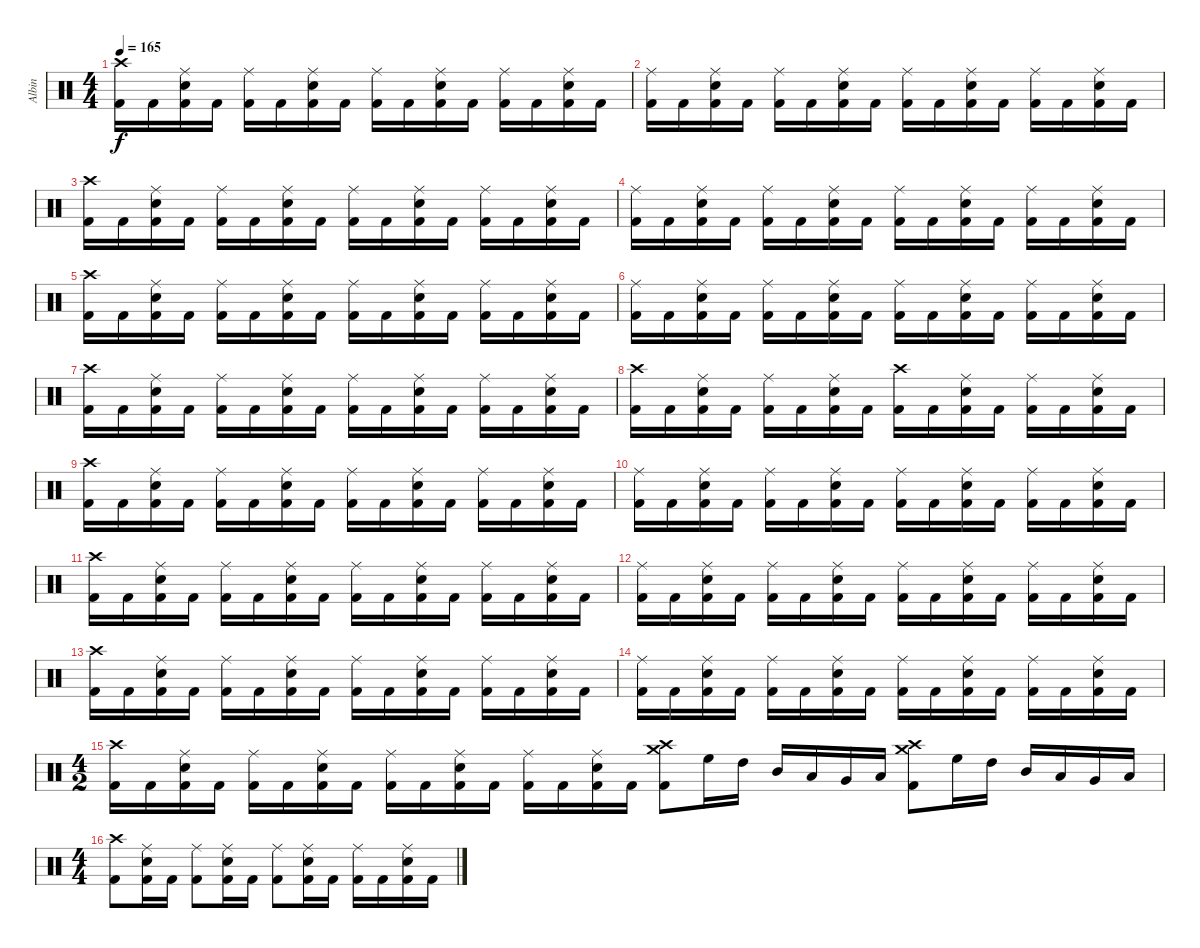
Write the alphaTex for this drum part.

\track ("Albin" "Albin") {instrument percussion}
\staff {score}
\articulation defaults
\ts (4 4)
\tempo 165
\clef neutral
\ks c
("Kick (hit) 2" "Crash high (hit)").16{dy f} "Kick (hit) 2".16 ("Kick (hit) 2" "Electric Snare (hit)" "Ride (middle)").16 "Kick (hit) 2".16 ("Kick (hit) 2" "Ride (middle)").16 "Kick (hit) 2".16 ("Kick (hit) 2" "Electric Snare (hit)" "Ride (middle)").16 "Kick (hit) 2".16 ("Kick (hit) 2" "Ride (middle)").16 "Kick (hit) 2".16 ("Kick (hit) 2" "Electric Snare (hit)" "Ride (middle)").16 "Kick (hit) 2".16 ("Kick (hit) 2" "Ride (middle)").16 "Kick (hit) 2".16 ("Kick (hit) 2" "Electric Snare (hit)" "Ride (middle)").16 "Kick (hit) 2".16 |
("Kick (hit) 2" "Ride (middle)").16 "Kick (hit) 2".16 ("Kick (hit) 2" "Electric Snare (hit)" "Ride (middle)").16 "Kick (hit) 2".16 ("Kick (hit) 2" "Ride (middle)").16 "Kick (hit) 2".16 ("Kick (hit) 2" "Electric Snare (hit)" "Ride (middle)").16 "Kick (hit) 2".16 ("Kick (hit) 2" "Ride (middle)").16 "Kick (hit) 2".16 ("Kick (hit) 2" "Electric Snare (hit)" "Ride (middle)").16 "Kick (hit) 2".16 ("Kick (hit) 2" "Ride (middle)").16 "Kick (hit) 2".16 ("Kick (hit) 2" "Electric Snare (hit)" "Ride (middle)").16 "Kick (hit) 2".16 |
("Kick (hit) 2" "Crash high (hit)").16 "Kick (hit) 2".16 ("Kick (hit) 2" "Electric Snare (hit)" "Ride (middle)").16 "Kick (hit) 2".16 ("Kick (hit) 2" "Ride (middle)").16 "Kick (hit) 2".16 ("Kick (hit) 2" "Electric Snare (hit)" "Ride (middle)").16 "Kick (hit) 2".16 ("Kick (hit) 2" "Ride (middle)").16 "Kick (hit) 2".16 ("Kick (hit) 2" "Electric Snare (hit)" "Ride (middle)").16 "Kick (hit) 2".16 ("Kick (hit) 2" "Ride (middle)").16 "Kick (hit) 2".16 ("Kick (hit) 2" "Electric Snare (hit)" "Ride (middle)").16 "Kick (hit) 2".16 |
("Kick (hit) 2" "Ride (middle)").16 "Kick (hit) 2".16 ("Kick (hit) 2" "Electric Snare (hit)" "Ride (middle)").16 "Kick (hit) 2".16 ("Kick (hit) 2" "Ride (middle)").16 "Kick (hit) 2".16 ("Kick (hit) 2" "Electric Snare (hit)" "Ride (middle)").16 "Kick (hit) 2".16 ("Kick (hit) 2" "Ride (middle)").16 "Kick (hit) 2".16 ("Kick (hit) 2" "Electric Snare (hit)" "Ride (middle)").16 "Kick (hit) 2".16 ("Kick (hit) 2" "Ride (middle)").16 "Kick (hit) 2".16 ("Kick (hit) 2" "Electric Snare (hit)" "Ride (middle)").16 "Kick (hit) 2".16 |
("Kick (hit) 2" "Crash high (hit)").16 "Kick (hit) 2".16 ("Kick (hit) 2" "Electric Snare (hit)" "Ride (middle)").16 "Kick (hit) 2".16 ("Kick (hit) 2" "Ride (middle)").16 "Kick (hit) 2".16 ("Kick (hit) 2" "Electric Snare (hit)" "Ride (middle)").16 "Kick (hit) 2".16 ("Kick (hit) 2" "Ride (middle)").16 "Kick (hit) 2".16 ("Kick (hit) 2" "Electric Snare (hit)" "Ride (middle)").16 "Kick (hit) 2".16 ("Kick (hit) 2" "Ride (middle)").16 "Kick (hit) 2".16 ("Kick (hit) 2" "Electric Snare (hit)" "Ride (middle)").16 "Kick (hit) 2".16 |
("Kick (hit) 2" "Ride (middle)").16 "Kick (hit) 2".16 ("Kick (hit) 2" "Electric Snare (hit)" "Ride (middle)").16 "Kick (hit) 2".16 ("Kick (hit) 2" "Ride (middle)").16 "Kick (hit) 2".16 ("Kick (hit) 2" "Electric Snare (hit)" "Ride (middle)").16 "Kick (hit) 2".16 ("Kick (hit) 2" "Ride (middle)").16 "Kick (hit) 2".16 ("Kick (hit) 2" "Electric Snare (hit)" "Ride (middle)").16 "Kick (hit) 2".16 ("Kick (hit) 2" "Ride (middle)").16 "Kick (hit) 2".16 ("Kick (hit) 2" "Electric Snare (hit)" "Ride (middle)").16 "Kick (hit) 2".16 |
("Kick (hit) 2" "Crash high (hit)").16 "Kick (hit) 2".16 ("Kick (hit) 2" "Electric Snare (hit)" "Ride (middle)").16 "Kick (hit) 2".16 ("Kick (hit) 2" "Ride (middle)").16 "Kick (hit) 2".16 ("Kick (hit) 2" "Electric Snare (hit)" "Ride (middle)").16 "Kick (hit) 2".16 ("Kick (hit) 2" "Ride (middle)").16 "Kick (hit) 2".16 ("Kick (hit) 2" "Electric Snare (hit)" "Ride (middle)").16 "Kick (hit) 2".16 ("Kick (hit) 2" "Ride (middle)").16 "Kick (hit) 2".16 ("Kick (hit) 2" "Electric Snare (hit)" "Ride (middle)").16 "Kick (hit) 2".16 |
("Kick (hit) 2" "Crash high (hit)").16 "Kick (hit) 2".16 ("Kick (hit) 2" "Electric Snare (hit)" "Ride (middle)").16 "Kick (hit) 2".16 ("Kick (hit) 2" "Ride (middle)").16 "Kick (hit) 2".16 ("Kick (hit) 2" "Electric Snare (hit)" "Ride (middle)").16 "Kick (hit) 2".16 ("Kick (hit) 2" "Crash high (hit)").16 "Kick (hit) 2".16 ("Kick (hit) 2" "Electric Snare (hit)" "Ride (middle)").16 "Kick (hit) 2".16 ("Kick (hit) 2" "Ride (middle)").16 "Kick (hit) 2".16 ("Kick (hit) 2" "Electric Snare (hit)" "Ride (middle)").16 "Kick (hit) 2".16 |
("Kick (hit) 2" "Crash high (hit)").16 "Kick (hit) 2".16 ("Kick (hit) 2" "Electric Snare (hit)" "Ride (middle)").16 "Kick (hit) 2".16 ("Kick (hit) 2" "Ride (middle)").16 "Kick (hit) 2".16 ("Kick (hit) 2" "Electric Snare (hit)" "Ride (middle)").16 "Kick (hit) 2".16 ("Kick (hit) 2" "Ride (middle)").16 "Kick (hit) 2".16 ("Kick (hit) 2" "Electric Snare (hit)" "Ride (middle)").16 "Kick (hit) 2".16 ("Kick (hit) 2" "Ride (middle)").16 "Kick (hit) 2".16 ("Kick (hit) 2" "Electric Snare (hit)" "Ride (middle)").16 "Kick (hit) 2".16 |
("Kick (hit) 2" "Ride (middle)").16 "Kick (hit) 2".16 ("Kick (hit) 2" "Electric Snare (hit)" "Ride (middle)").16 "Kick (hit) 2".16 ("Kick (hit) 2" "Ride (middle)").16 "Kick (hit) 2".16 ("Kick (hit) 2" "Electric Snare (hit)" "Ride (middle)").16 "Kick (hit) 2".16 ("Kick (hit) 2" "Ride (middle)").16 "Kick (hit) 2".16 ("Kick (hit) 2" "Electric Snare (hit)" "Ride (middle)").16 "Kick (hit) 2".16 ("Kick (hit) 2" "Ride (middle)").16 "Kick (hit) 2".16 ("Kick (hit) 2" "Electric Snare (hit)" "Ride (middle)").16 "Kick (hit) 2".16 |
("Kick (hit) 2" "Crash high (hit)").16 "Kick (hit) 2".16 ("Kick (hit) 2" "Electric Snare (hit)" "Ride (middle)").16 "Kick (hit) 2".16 ("Kick (hit) 2" "Ride (middle)").16 "Kick (hit) 2".16 ("Kick (hit) 2" "Electric Snare (hit)" "Ride (middle)").16 "Kick (hit) 2".16 ("Kick (hit) 2" "Ride (middle)").16 "Kick (hit) 2".16 ("Kick (hit) 2" "Electric Snare (hit)" "Ride (middle)").16 "Kick (hit) 2".16 ("Kick (hit) 2" "Ride (middle)").16 "Kick (hit) 2".16 ("Kick (hit) 2" "Electric Snare (hit)" "Ride (middle)").16 "Kick (hit) 2".16 |
("Kick (hit) 2" "Ride (middle)").16 "Kick (hit) 2".16 ("Kick (hit) 2" "Electric Snare (hit)" "Ride (middle)").16 "Kick (hit) 2".16 ("Kick (hit) 2" "Ride (middle)").16 "Kick (hit) 2".16 ("Kick (hit) 2" "Electric Snare (hit)" "Ride (middle)").16 "Kick (hit) 2".16 ("Kick (hit) 2" "Ride (middle)").16 "Kick (hit) 2".16 ("Kick (hit) 2" "Electric Snare (hit)" "Ride (middle)").16 "Kick (hit) 2".16 ("Kick (hit) 2" "Ride (middle)").16 "Kick (hit) 2".16 ("Kick (hit) 2" "Electric Snare (hit)" "Ride (middle)").16 "Kick (hit) 2".16 |
("Kick (hit) 2" "Crash high (hit)").16 "Kick (hit) 2".16 ("Kick (hit) 2" "Electric Snare (hit)" "Ride (middle)").16 "Kick (hit) 2".16 ("Kick (hit) 2" "Ride (middle)").16 "Kick (hit) 2".16 ("Kick (hit) 2" "Electric Snare (hit)" "Ride (middle)").16 "Kick (hit) 2".16 ("Kick (hit) 2" "Ride (middle)").16 "Kick (hit) 2".16 ("Kick (hit) 2" "Electric Snare (hit)" "Ride (middle)").16 "Kick (hit) 2".16 ("Kick (hit) 2" "Ride (middle)").16 "Kick (hit) 2".16 ("Kick (hit) 2" "Electric Snare (hit)" "Ride (middle)").16 "Kick (hit) 2".16 |
("Kick (hit) 2" "Ride (middle)").16 "Kick (hit) 2".16 ("Kick (hit) 2" "Electric Snare (hit)" "Ride (middle)").16 "Kick (hit) 2".16 ("Kick (hit) 2" "Ride (middle)").16 "Kick (hit) 2".16 ("Kick (hit) 2" "Electric Snare (hit)" "Ride (middle)").16 "Kick (hit) 2".16 ("Kick (hit) 2" "Ride (middle)").16 "Kick (hit) 2".16 ("Kick (hit) 2" "Electric Snare (hit)" "Ride (middle)").16 "Kick (hit) 2".16 ("Kick (hit) 2" "Ride (middle)").16 "Kick (hit) 2".16 ("Kick (hit) 2" "Electric Snare (hit)" "Ride (middle)").16 "Kick (hit) 2".16 |
\ts (4 2)
("Kick (hit) 2" "Crash high (hit)").16 "Kick (hit) 2".16 ("Kick (hit) 2" "Electric Snare (hit)" "Ride (middle)").16 "Kick (hit) 2".16 ("Kick (hit) 2" "Ride (middle)").16 "Kick (hit) 2".16 ("Kick (hit) 2" "Electric Snare (hit)" "Ride (middle)").16 "Kick (hit) 2".16 ("Kick (hit) 2" "Ride (middle)").16 "Kick (hit) 2".16 ("Kick (hit) 2" "Electric Snare (hit)" "Ride (middle)").16 "Kick (hit) 2".16 ("Kick (hit) 2" "Ride (middle)").16 "Kick (hit) 2".16 ("Kick (hit) 2" "Electric Snare (hit)" "Ride (middle)").16 "Kick (hit) 2".16 ("Kick (hit) 2" "Crash high (hit)" "Crash medium (hit)").8 "High Floor Tom (hit)".16 "High Tom (hit)".16 "Mid Tom (hit)".16 "Low Tom (hit)".16 "Very Low Tom (hit)".16 "Low Floor Tom (hit)".16 ("Kick (hit) 2" "Crash high (hit)" "Crash medium (hit)").8 "High Floor Tom (hit)".16 "High Tom (hit)".16 "Mid Tom (hit)".16 "Low Tom (hit)".16 "Very Low Tom (hit)".16 "Low Floor Tom (hit)".16 |
\ts (4 4)
("Kick (hit) 2" "Crash high (hit)").8 ("Kick (hit) 2" "Electric Snare (hit)" "Ride (middle)").16 "Kick (hit) 2".16 ("Kick (hit) 2" "Ride (middle)").8 ("Kick (hit) 2" "Electric Snare (hit)" "Ride (middle)").16 "Kick (hit) 2".16 ("Kick (hit) 2" "Ride (middle)").8 ("Kick (hit) 2" "Electric Snare (hit)" "Ride (middle)").16 "Kick (hit) 2".16 ("Kick (hit) 2" "Ride (middle)").16 "Kick (hit) 2".16 ("Kick (hit) 2" "Electric Snare (hit)" "Ride (middle)").16 "Kick (hit) 2".16
